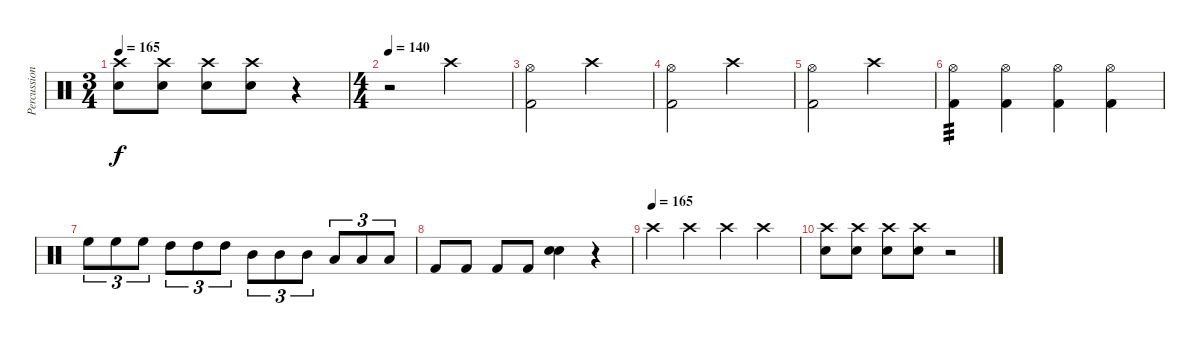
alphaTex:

\track ("Percussion" "Percussion") {instrument percussion}
\staff {score}
\articulation defaults
\ts (3 4)
\tempo 165
\clef neutral
\ks c
("Crash high (hit)" "Snare (hit) 2").8{dy f} ("Crash high (hit)" "Snare (hit) 2").8 ("Crash high (hit)" "Snare (hit) 2").8 ("Crash high (hit)" "Snare (hit) 2").8 r.4 |
\ts (4 4)
\tempo 140
r.2 "Crash high (hit)".2 |
("Hi-Hat (open)" "Kick (hit) 2").2 "Crash high (hit)".2 |
("Hi-Hat (open)" "Kick (hit) 2").2 "Crash high (hit)".2 |
("Hi-Hat (open)" "Kick (hit) 2").2 "Crash high (hit)".2 |
("Hi-Hat (open)" "Kick (hit) 2").4{tp 3} ("Hi-Hat (open)" "Kick (hit) 2").4 ("Hi-Hat (open)" "Kick (hit) 2").4 ("Hi-Hat (open)" "Kick (hit) 2").4 |
"High Floor Tom (hit)".8{tu (3 2)} "High Floor Tom (hit)".8{tu (3 2)} "High Floor Tom (hit)".8{tu (3 2)} "High Tom (hit)".8{tu (3 2)} "High Tom (hit)".8{tu (3 2)} "High Tom (hit)".8{tu (3 2)} "Mid Tom (hit)".8{tu (3 2)} "Mid Tom (hit)".8{tu (3 2)} "Mid Tom (hit)".8{tu (3 2)} "Low Tom (hit)".8{tu (3 2)} "Low Tom (hit)".8{tu (3 2)} "Low Tom (hit)".8{tu (3 2)} |
"Kick (hit) 2".8 "Kick (hit) 2".8 "Kick (hit) 2".8 "Kick (hit) 2".8 ("Electric Snare (hit)" "Snare (hit) 2").4 r.4 |
\tempo (165)
"Crash high (hit)".4 "Crash high (hit)".4 "Crash high (hit)".4 "Crash high (hit)".4 |
("Crash high (hit)" "Snare (hit) 2").8 ("Crash high (hit)" "Snare (hit) 2").8 ("Crash high (hit)" "Snare (hit) 2").8 ("Crash high (hit)" "Snare (hit) 2").8 r.2
